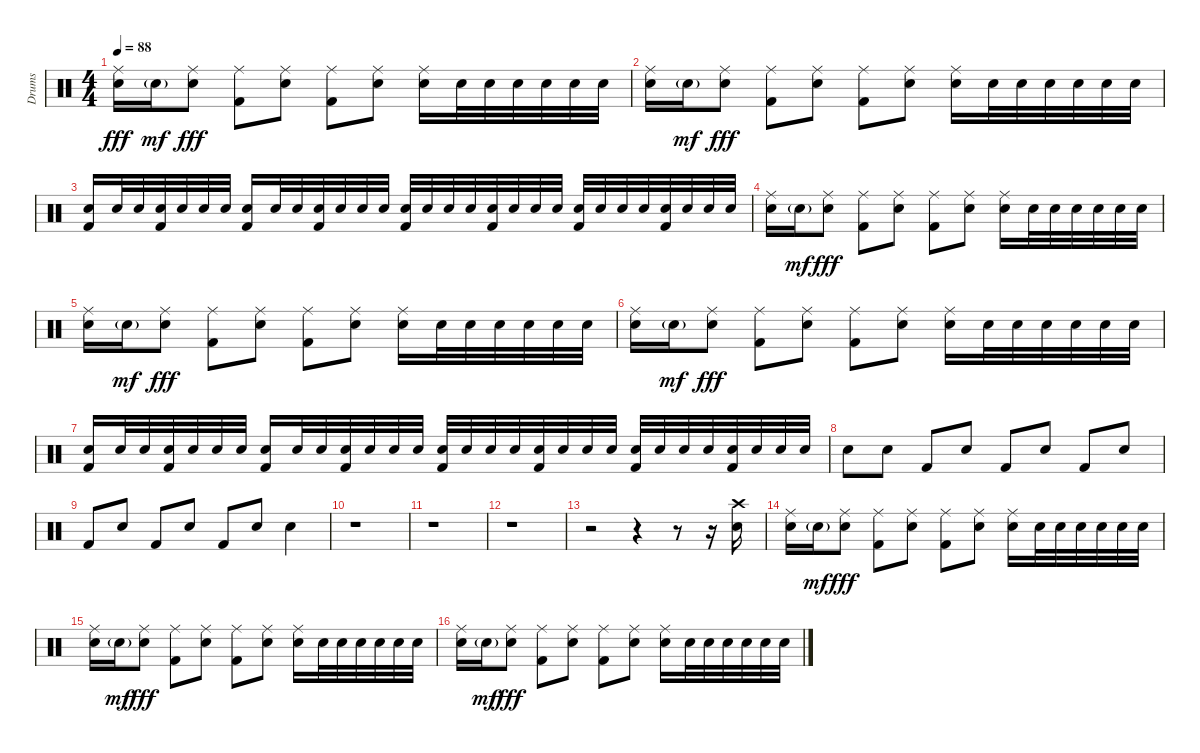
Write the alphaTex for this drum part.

\track ("Drums" "Drums") {instrument percussion}
\staff {score}
\articulation defaults
\ts (4 4)
\tempo 88
\clef neutral
\ks c
("Ride (middle)" "Electric Snare (hit)").16{dy fff} "Electric Snare (hit)"{g}.16{dy mf} ("Ride (middle)" "Electric Snare (hit)").8{dy fff} ("Ride (middle)" "Kick (hit) 2").8 ("Ride (middle)" "Electric Snare (hit)").8 ("Ride (middle)" "Kick (hit) 2").8 ("Ride (middle)" "Electric Snare (hit)").8 ("Ride (middle)" "Electric Snare (hit)").16 "Electric Snare (hit)".32 "Electric Snare (hit)".32 "Electric Snare (hit)".32 "Electric Snare (hit)".32 "Electric Snare (hit)".32 "Electric Snare (hit)".32 |
("Ride (middle)" "Electric Snare (hit)").16 "Electric Snare (hit)"{g}.16{dy mf} ("Ride (middle)" "Electric Snare (hit)").8{dy fff} ("Ride (middle)" "Kick (hit) 2").8 ("Ride (middle)" "Electric Snare (hit)").8 ("Ride (middle)" "Kick (hit) 2").8 ("Ride (middle)" "Electric Snare (hit)").8 ("Ride (middle)" "Electric Snare (hit)").16 "Electric Snare (hit)".32 "Electric Snare (hit)".32 "Electric Snare (hit)".32 "Electric Snare (hit)".32 "Electric Snare (hit)".32 "Electric Snare (hit)".32 |
("Kick (hit) 2" "Electric Snare (hit)").16 "Electric Snare (hit)".32 "Electric Snare (hit)".32 ("Kick (hit) 2" "Electric Snare (hit)").32 "Electric Snare (hit)".32 "Electric Snare (hit)".32 "Electric Snare (hit)".32 ("Kick (hit) 2" "Electric Snare (hit)").16 "Electric Snare (hit)".32 "Electric Snare (hit)".32 ("Kick (hit) 2" "Electric Snare (hit)").32 "Electric Snare (hit)".32 "Electric Snare (hit)".32 "Electric Snare (hit)".32 ("Kick (hit) 2" "Electric Snare (hit)").32 "Electric Snare (hit)".32 "Electric Snare (hit)".32 "Electric Snare (hit)".32 ("Kick (hit) 2" "Electric Snare (hit)").32 "Electric Snare (hit)".32 "Electric Snare (hit)".32 "Electric Snare (hit)".32 ("Kick (hit) 2" "Electric Snare (hit)").32 "Electric Snare (hit)".32 "Electric Snare (hit)".32 "Electric Snare (hit)".32 ("Kick (hit) 2" "Electric Snare (hit)").32 "Electric Snare (hit)".32 "Electric Snare (hit)".32 "Electric Snare (hit)".32 |
("Ride (middle)" "Electric Snare (hit)").16 "Electric Snare (hit)"{g}.16{dy mf} ("Ride (middle)" "Electric Snare (hit)").8{dy fff} ("Ride (middle)" "Kick (hit) 2").8 ("Ride (middle)" "Electric Snare (hit)").8 ("Ride (middle)" "Kick (hit) 2").8 ("Ride (middle)" "Electric Snare (hit)").8 ("Ride (middle)" "Electric Snare (hit)").16 "Electric Snare (hit)".32 "Electric Snare (hit)".32 "Electric Snare (hit)".32 "Electric Snare (hit)".32 "Electric Snare (hit)".32 "Electric Snare (hit)".32 |
("Ride (middle)" "Electric Snare (hit)").16 "Electric Snare (hit)"{g}.16{dy mf} ("Ride (middle)" "Electric Snare (hit)").8{dy fff} ("Ride (middle)" "Kick (hit) 2").8 ("Ride (middle)" "Electric Snare (hit)").8 ("Ride (middle)" "Kick (hit) 2").8 ("Ride (middle)" "Electric Snare (hit)").8 ("Ride (middle)" "Electric Snare (hit)").16 "Electric Snare (hit)".32 "Electric Snare (hit)".32 "Electric Snare (hit)".32 "Electric Snare (hit)".32 "Electric Snare (hit)".32 "Electric Snare (hit)".32 |
("Ride (middle)" "Electric Snare (hit)").16 "Electric Snare (hit)"{g}.16{dy mf} ("Ride (middle)" "Electric Snare (hit)").8{dy fff} ("Ride (middle)" "Kick (hit) 2").8 ("Ride (middle)" "Electric Snare (hit)").8 ("Ride (middle)" "Kick (hit) 2").8 ("Ride (middle)" "Electric Snare (hit)").8 ("Ride (middle)" "Electric Snare (hit)").16 "Electric Snare (hit)".32 "Electric Snare (hit)".32 "Electric Snare (hit)".32 "Electric Snare (hit)".32 "Electric Snare (hit)".32 "Electric Snare (hit)".32 |
("Kick (hit) 2" "Electric Snare (hit)").16 "Electric Snare (hit)".32 "Electric Snare (hit)".32 ("Kick (hit) 2" "Electric Snare (hit)").32 "Electric Snare (hit)".32 "Electric Snare (hit)".32 "Electric Snare (hit)".32 ("Kick (hit) 2" "Electric Snare (hit)").16 "Electric Snare (hit)".32 "Electric Snare (hit)".32 ("Kick (hit) 2" "Electric Snare (hit)").32 "Electric Snare (hit)".32 "Electric Snare (hit)".32 "Electric Snare (hit)".32 ("Kick (hit) 2" "Electric Snare (hit)").32 "Electric Snare (hit)".32 "Electric Snare (hit)".32 "Electric Snare (hit)".32 ("Kick (hit) 2" "Electric Snare (hit)").32 "Electric Snare (hit)".32 "Electric Snare (hit)".32 "Electric Snare (hit)".32 ("Kick (hit) 2" "Electric Snare (hit)").32 "Electric Snare (hit)".32 "Electric Snare (hit)".32 "Electric Snare (hit)".32 ("Kick (hit) 2" "Electric Snare (hit)").32 "Electric Snare (hit)".32 "Electric Snare (hit)".32 "Electric Snare (hit)".32 |
"Electric Snare (hit)".8 "Electric Snare (hit)".8 "Kick (hit) 2".8 "Electric Snare (hit)".8 "Kick (hit) 2".8 "Electric Snare (hit)".8 "Kick (hit) 2".8 "Electric Snare (hit)".8 |
"Kick (hit) 2".8 "Electric Snare (hit)".8 "Kick (hit) 2".8 "Electric Snare (hit)".8 "Kick (hit) 2".8 "Electric Snare (hit)".8 "Electric Snare (hit)".4 |
r.1 |
r.1 |
r.1 |
r.2 r.4 r.8 r.16 ("Crash high (hit)" "Electric Snare (hit)").16 |
("Ride (middle)" "Electric Snare (hit)").16 "Electric Snare (hit)"{g}.16{dy mf} ("Ride (middle)" "Electric Snare (hit)").8{dy fff} ("Ride (middle)" "Kick (hit) 2").8 ("Ride (middle)" "Electric Snare (hit)").8 ("Ride (middle)" "Kick (hit) 2").8 ("Ride (middle)" "Electric Snare (hit)").8 ("Ride (middle)" "Electric Snare (hit)").16 "Electric Snare (hit)".32 "Electric Snare (hit)".32 "Electric Snare (hit)".32 "Electric Snare (hit)".32 "Electric Snare (hit)".32 "Electric Snare (hit)".32 |
("Ride (middle)" "Electric Snare (hit)").16 "Electric Snare (hit)"{g}.16{dy mf} ("Ride (middle)" "Electric Snare (hit)").8{dy fff} ("Ride (middle)" "Kick (hit) 2").8 ("Ride (middle)" "Electric Snare (hit)").8 ("Ride (middle)" "Kick (hit) 2").8 ("Ride (middle)" "Electric Snare (hit)").8 ("Ride (middle)" "Electric Snare (hit)").16 "Electric Snare (hit)".32 "Electric Snare (hit)".32 "Electric Snare (hit)".32 "Electric Snare (hit)".32 "Electric Snare (hit)".32 "Electric Snare (hit)".32 |
("Ride (middle)" "Electric Snare (hit)").16 "Electric Snare (hit)"{g}.16{dy mf} ("Ride (middle)" "Electric Snare (hit)").8{dy fff} ("Ride (middle)" "Kick (hit) 2").8 ("Ride (middle)" "Electric Snare (hit)").8 ("Ride (middle)" "Kick (hit) 2").8 ("Ride (middle)" "Electric Snare (hit)").8 ("Ride (middle)" "Electric Snare (hit)").16 "Electric Snare (hit)".32 "Electric Snare (hit)".32 "Electric Snare (hit)".32 "Electric Snare (hit)".32 "Electric Snare (hit)".32 "Electric Snare (hit)".32
